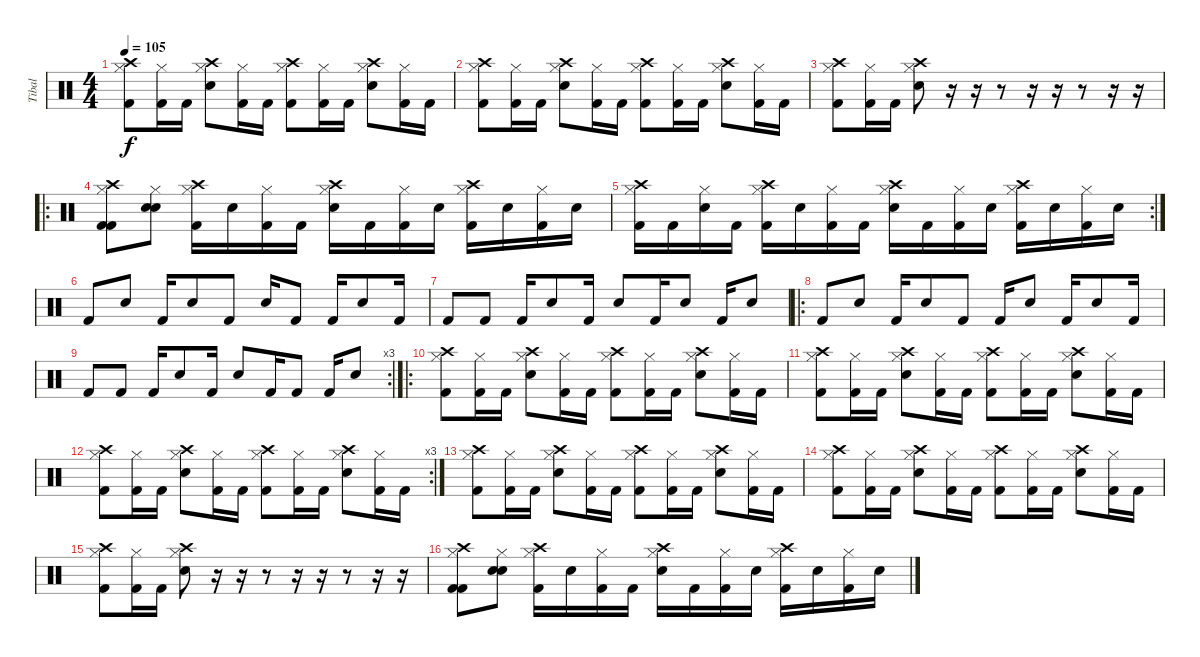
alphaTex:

\track ("Tibal" "Tibal") {instrument percussion}
\staff {score}
\articulation defaults
\ts (4 4)
\tempo 105
\clef neutral
\ks c
("Crash high (hit)" "Hi-Hat (closed)" "Kick (hit) 2").8{dy f} ("Hi-Hat (closed)" "Kick (hit) 2").16 "Kick (hit) 2".16 ("Crash high (hit)" "Hi-Hat (closed)" "Snare (hit) 2").8 ("Hi-Hat (closed)" "Kick (hit) 2").16 "Kick (hit) 2".16 ("Crash high (hit)" "Hi-Hat (closed)" "Kick (hit) 2").8 ("Hi-Hat (closed)" "Kick (hit) 2").16 "Kick (hit) 2".16 ("Crash high (hit)" "Hi-Hat (closed)" "Snare (hit) 2").8 ("Hi-Hat (closed)" "Kick (hit) 2").16 "Kick (hit) 2".16 |
("Crash high (hit)" "Hi-Hat (closed)" "Kick (hit) 2").8 ("Hi-Hat (closed)" "Kick (hit) 2").16 "Kick (hit) 2".16 ("Crash high (hit)" "Hi-Hat (closed)" "Snare (hit) 2").8 ("Hi-Hat (closed)" "Kick (hit) 2").16 "Kick (hit) 2".16 ("Crash high (hit)" "Hi-Hat (closed)" "Kick (hit) 2").8 ("Hi-Hat (closed)" "Kick (hit) 2").16 "Kick (hit) 2".16 ("Crash high (hit)" "Hi-Hat (closed)" "Snare (hit) 2").8 ("Hi-Hat (closed)" "Kick (hit) 2").16 "Kick (hit) 2".16 |
("Crash high (hit)" "Hi-Hat (closed)" "Kick (hit) 2").8 ("Hi-Hat (closed)" "Kick (hit) 2").16 "Kick (hit) 2".16 ("Crash high (hit)" "Hi-Hat (closed)" "Snare (hit) 2").8 r.16 r.16 r.8 r.16 r.16 r.8 r.16 r.16 |
\ro
("Hi-Hat (closed)" "Crash high (hit)" "Kick (hit) 2" "Kick (hit) 2").8 ("Hi-Hat (closed)" "Snare (hit) 2" "Snare (hit) 2").8 ("Hi-Hat (closed)" "Crash high (hit)" "Kick (hit) 2").16 "Snare (hit) 2".16 ("Hi-Hat (closed)" "Kick (hit) 2").16 "Kick (hit) 2".16 ("Hi-Hat (closed)" "Crash high (hit)" "Snare (hit) 2").16 "Kick (hit) 2".16 ("Hi-Hat (closed)" "Kick (hit) 2").16 "Snare (hit) 2".16 ("Hi-Hat (closed)" "Crash high (hit)" "Kick (hit) 2").16 "Snare (hit) 2".16 ("Hi-Hat (closed)" "Kick (hit) 2").16 "Snare (hit) 2".16 |
\rc 2
("Hi-Hat (closed)" "Crash high (hit)" "Kick (hit) 2").16 "Kick (hit) 2".16 ("Hi-Hat (closed)" "Snare (hit) 2").16 "Kick (hit) 2".16 ("Hi-Hat (closed)" "Crash high (hit)" "Kick (hit) 2").16 "Snare (hit) 2".16 ("Hi-Hat (closed)" "Kick (hit) 2").16 "Kick (hit) 2".16 ("Hi-Hat (closed)" "Crash high (hit)" "Snare (hit) 2").16 "Kick (hit) 2".16 ("Hi-Hat (closed)" "Kick (hit) 2").16 "Snare (hit) 2".16 ("Hi-Hat (closed)" "Crash high (hit)" "Kick (hit) 2").16 "Snare (hit) 2".16 ("Hi-Hat (closed)" "Kick (hit) 2").16 "Snare (hit) 2".16 |
"Kick (hit) 2".8 "Snare (hit) 2".8 "Kick (hit) 2".16 "Snare (hit) 2".8 "Kick (hit) 2".8 "Snare (hit) 2".16 "Kick (hit) 2".8 "Kick (hit) 2".16 "Snare (hit) 2".8 "Kick (hit) 2".16 |
"Kick (hit) 2".8 "Kick (hit) 2".8 "Kick (hit) 2".16 "Snare (hit) 2".8 "Kick (hit) 2".16 "Snare (hit) 2".8 "Kick (hit) 2".16 "Snare (hit) 2".8 "Kick (hit) 2".16 "Snare (hit) 2".8 |
\ro "Kick (hit) 2".8 "Snare (hit) 2".8 "Kick (hit) 2".16 "Snare (hit) 2".8 "Kick (hit) 2".8 "Kick (hit) 2".16 "Snare (hit) 2".8 "Kick (hit) 2".16 "Snare (hit) 2".8 "Kick (hit) 2".16
|
\rc 3 "Kick (hit) 2".8 "Kick (hit) 2".8 "Kick (hit) 2".16 "Snare (hit) 2".8 "Kick (hit) 2".16 "Snare (hit) 2".8 "Kick (hit) 2".16 "Kick (hit) 2".8 "Kick (hit) 2".16 "Snare (hit) 2".8
|
\ro
("Crash high (hit)" "Hi-Hat (closed)" "Kick (hit) 2").8 ("Hi-Hat (closed)" "Kick (hit) 2").16 "Kick (hit) 2".16 ("Crash high (hit)" "Hi-Hat (closed)" "Snare (hit) 2").8 ("Hi-Hat (closed)" "Kick (hit) 2").16 "Kick (hit) 2".16 ("Crash high (hit)" "Hi-Hat (closed)" "Kick (hit) 2").8 ("Hi-Hat (closed)" "Kick (hit) 2").16 "Kick (hit) 2".16 ("Crash high (hit)" "Hi-Hat (closed)" "Snare (hit) 2").8 ("Hi-Hat (closed)" "Kick (hit) 2").16 "Kick (hit) 2".16 |
("Crash high (hit)" "Hi-Hat (closed)" "Kick (hit) 2").8 ("Hi-Hat (closed)" "Kick (hit) 2").16 "Kick (hit) 2".16 ("Crash high (hit)" "Hi-Hat (closed)" "Snare (hit) 2").8 ("Hi-Hat (closed)" "Kick (hit) 2").16 "Kick (hit) 2".16 ("Crash high (hit)" "Hi-Hat (closed)" "Kick (hit) 2").8 ("Hi-Hat (closed)" "Kick (hit) 2").16 "Kick (hit) 2".16 ("Crash high (hit)" "Hi-Hat (closed)" "Snare (hit) 2").8 ("Hi-Hat (closed)" "Kick (hit) 2").16 "Kick (hit) 2".16 |
\rc 3
("Crash high (hit)" "Hi-Hat (closed)" "Kick (hit) 2").8 ("Hi-Hat (closed)" "Kick (hit) 2").16 "Kick (hit) 2".16 ("Crash high (hit)" "Hi-Hat (closed)" "Snare (hit) 2").8 ("Hi-Hat (closed)" "Kick (hit) 2").16 "Kick (hit) 2".16 ("Crash high (hit)" "Hi-Hat (closed)" "Kick (hit) 2").8 ("Hi-Hat (closed)" "Kick (hit) 2").16 "Kick (hit) 2".16 ("Crash high (hit)" "Hi-Hat (closed)" "Snare (hit) 2").8 ("Hi-Hat (closed)" "Kick (hit) 2").16 "Kick (hit) 2".16 |
("Crash high (hit)" "Hi-Hat (closed)" "Kick (hit) 2").8 ("Hi-Hat (closed)" "Kick (hit) 2").16 "Kick (hit) 2".16 ("Crash high (hit)" "Hi-Hat (closed)" "Snare (hit) 2").8 ("Hi-Hat (closed)" "Kick (hit) 2").16 "Kick (hit) 2".16 ("Crash high (hit)" "Hi-Hat (closed)" "Kick (hit) 2").8 ("Hi-Hat (closed)" "Kick (hit) 2").16 "Kick (hit) 2".16 ("Crash high (hit)" "Hi-Hat (closed)" "Snare (hit) 2").8 ("Hi-Hat (closed)" "Kick (hit) 2").16 "Kick (hit) 2".16 |
("Crash high (hit)" "Hi-Hat (closed)" "Kick (hit) 2").8 ("Hi-Hat (closed)" "Kick (hit) 2").16 "Kick (hit) 2".16 ("Crash high (hit)" "Hi-Hat (closed)" "Snare (hit) 2").8 ("Hi-Hat (closed)" "Kick (hit) 2").16 "Kick (hit) 2".16 ("Crash high (hit)" "Hi-Hat (closed)" "Kick (hit) 2").8 ("Hi-Hat (closed)" "Kick (hit) 2").16 "Kick (hit) 2".16 ("Crash high (hit)" "Hi-Hat (closed)" "Snare (hit) 2").8 ("Hi-Hat (closed)" "Kick (hit) 2").16 "Kick (hit) 2".16 |
("Crash high (hit)" "Hi-Hat (closed)" "Kick (hit) 2").8 ("Hi-Hat (closed)" "Kick (hit) 2").16 "Kick (hit) 2".16 ("Crash high (hit)" "Hi-Hat (closed)" "Snare (hit) 2").8 r.16 r.16 r.8 r.16 r.16 r.8 r.16 r.16 |
("Hi-Hat (closed)" "Crash high (hit)" "Kick (hit) 2" "Kick (hit) 2").8 ("Hi-Hat (closed)" "Snare (hit) 2" "Snare (hit) 2").8 ("Hi-Hat (closed)" "Crash high (hit)" "Kick (hit) 2").16 "Snare (hit) 2".16 ("Hi-Hat (closed)" "Kick (hit) 2").16 "Kick (hit) 2".16 ("Hi-Hat (closed)" "Crash high (hit)" "Snare (hit) 2").16 "Kick (hit) 2".16 ("Hi-Hat (closed)" "Kick (hit) 2").16 "Snare (hit) 2".16 ("Hi-Hat (closed)" "Crash high (hit)" "Kick (hit) 2").16 "Snare (hit) 2".16 ("Hi-Hat (closed)" "Kick (hit) 2").16 "Snare (hit) 2".16
